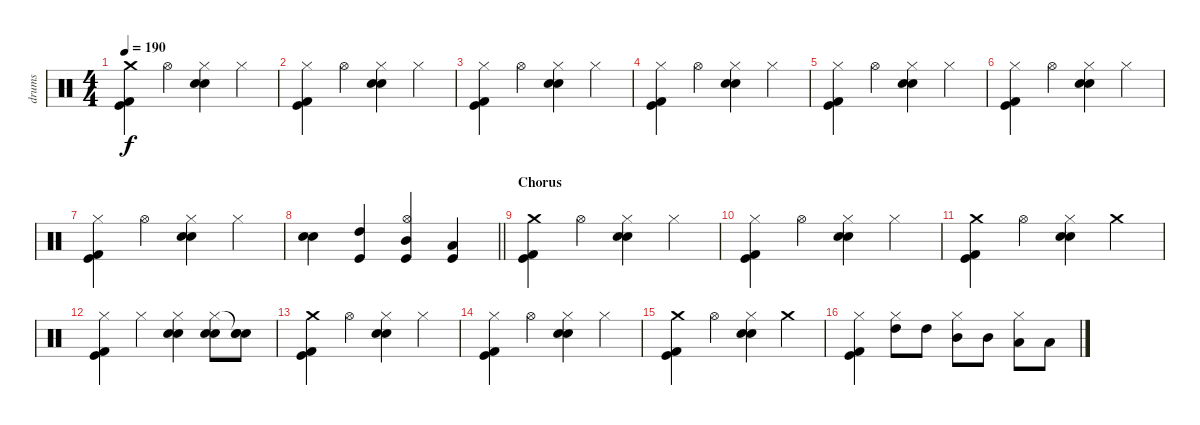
\track ("drums" "drums") {instrument percussion}
\staff {score}
\articulation defaults
\ts (4 4)
\tempo 190
\clef neutral
\ks c
("Crash medium (hit)" "Kick (hit) 2" "Kick (hit)").4{dy f} "Hi-Hat (open)".4 ("Hi-Hat (closed)" "Electric Snare (hit)" "Snare (hit) 2").4 "Hi-Hat (closed)".4 |
("Hi-Hat (closed)" "Kick (hit) 2" "Kick (hit)").4 "Hi-Hat (open)".4 ("Hi-Hat (closed)" "Electric Snare (hit)" "Snare (hit) 2").4 "Hi-Hat (closed)".4 |
("Hi-Hat (closed)" "Kick (hit) 2" "Kick (hit)").4 "Hi-Hat (open)".4 ("Hi-Hat (closed)" "Electric Snare (hit)" "Snare (hit) 2").4 "Hi-Hat (closed)".4 |
("Hi-Hat (closed)" "Kick (hit) 2" "Kick (hit)").4 "Hi-Hat (open)".4 ("Hi-Hat (closed)" "Electric Snare (hit)" "Snare (hit) 2").4 "Hi-Hat (closed)".4 |
("Hi-Hat (closed)" "Kick (hit) 2" "Kick (hit)").4 "Hi-Hat (open)".4 ("Hi-Hat (closed)" "Electric Snare (hit)" "Snare (hit) 2").4 "Hi-Hat (closed)".4 |
("Hi-Hat (closed)" "Kick (hit) 2" "Kick (hit)").4 "Hi-Hat (open)".4 ("Hi-Hat (closed)" "Electric Snare (hit)" "Snare (hit) 2").4 "Hi-Hat (closed)".4 |
("Hi-Hat (closed)" "Kick (hit) 2" "Kick (hit)").4 "Hi-Hat (open)".4 ("Hi-Hat (closed)" "Electric Snare (hit)" "Snare (hit) 2").4 "Hi-Hat (closed)".4 |
\barLineRight lightlight
("Electric Snare (hit)" "Snare (hit) 2").4 ("High Tom (hit)" "Kick (hit)").4 ("Hi-Hat (open)" "Mid Tom (hit)" "Kick (hit)").4 ("Low Tom (hit)" "Kick (hit)").4 |
\section ("" "Chorus")
("Crash medium (hit)" "Kick (hit) 2" "Kick (hit)").4 "Hi-Hat (open)".4 ("Hi-Hat (closed)" "Snare (hit) 2" "Electric Snare (hit)").4 "Hi-Hat (closed)".4 |
("Hi-Hat (closed)" "Kick (hit) 2" "Kick (hit)").4 "Hi-Hat (open)".4 ("Hi-Hat (closed)" "Snare (hit) 2" "Electric Snare (hit)").4 "Hi-Hat (closed)".4 |
("Crash medium (hit)" "Kick (hit) 2" "Kick (hit)").4 "Hi-Hat (open)".4 ("Hi-Hat (closed)" "Snare (hit) 2" "Electric Snare (hit)").4 "Crash medium (hit)".4 |
("Hi-Hat (closed)" "Kick (hit) 2" "Kick (hit)").4 "Hi-Hat (closed)".4 ("Hi-Hat (closed)" "Snare (hit) 2" "Electric Snare (hit)").4 ("Hi-Hat (closed)" "Snare (hit) 2" "Electric Snare (hit)").8 ("Snare (hit)"{t} "Snare (hit) 2" "Electric Snare (hit)").8 |
("Crash medium (hit)" "Kick (hit) 2" "Kick (hit)").4 "Hi-Hat (open)".4 ("Hi-Hat (closed)" "Snare (hit) 2" "Electric Snare (hit)").4 "Hi-Hat (closed)".4 |
("Hi-Hat (closed)" "Kick (hit) 2" "Kick (hit)").4 "Hi-Hat (open)".4 ("Hi-Hat (closed)" "Snare (hit) 2" "Electric Snare (hit)").4 "Hi-Hat (closed)".4 |
("Crash medium (hit)" "Kick (hit) 2" "Kick (hit)").4 "Hi-Hat (open)".4 ("Hi-Hat (closed)" "Snare (hit) 2" "Electric Snare (hit)").4 "Crash medium (hit)".4 |
("Hi-Hat (closed)" "Kick (hit) 2" "Kick (hit)").4 ("Hi-Hat (closed)" "High Tom (hit)").8 "High Tom (hit)".8 ("Hi-Hat (closed)" "Mid Tom (hit)").8 "Mid Tom (hit)".8 ("Hi-Hat (closed)" "Low Tom (hit)").8 "Low Tom (hit)".8
